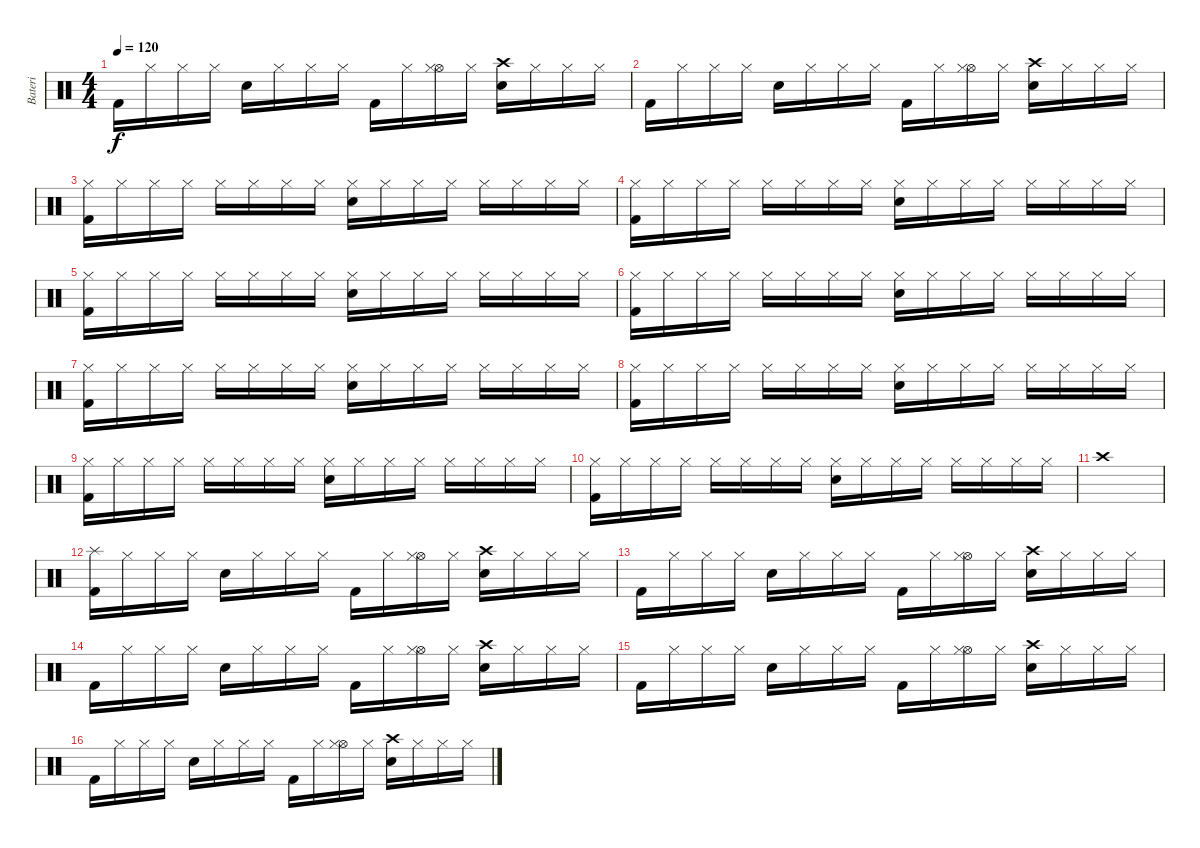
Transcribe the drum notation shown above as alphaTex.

\track ("Bateri" "Bateri") {instrument percussion}
\staff {score}
\articulation defaults
\ts (4 4)
\tempo 120
\clef neutral
\ks c "Kick (hit) 2".16{dy f} "Hi-Hat (closed)".16 "Hi-Hat (closed)".16 "Hi-Hat (closed)".16 "Electric Snare (hit)".16 "Hi-Hat (closed)".16 "Hi-Hat (closed)".16 "Hi-Hat (closed)".16 "Kick (hit) 2".16 "Hi-Hat (closed)".16
("Hi-Hat (open)" "Hi-Hat (closed)").16 "Hi-Hat (closed)".16 ("Crash high (hit)" "Electric Snare (hit)").16 "Hi-Hat (closed)".16 "Hi-Hat (closed)".16 "Hi-Hat (closed)".16 |
"Kick (hit) 2".16 "Hi-Hat (closed)".16 "Hi-Hat (closed)".16 "Hi-Hat (closed)".16 "Electric Snare (hit)".16 "Hi-Hat (closed)".16 "Hi-Hat (closed)".16 "Hi-Hat (closed)".16 "Kick (hit) 2".16 "Hi-Hat (closed)".16 ("Hi-Hat (open)" "Hi-Hat (closed)").16 "Hi-Hat (closed)".16 ("Crash high (hit)" "Electric Snare (hit)").16 "Hi-Hat (closed)".16 "Hi-Hat (closed)".16 "Hi-Hat (closed)".16 |
("Hi-Hat (closed)" "Kick (hit) 2").16 "Hi-Hat (closed)".16 "Hi-Hat (closed)".16 "Hi-Hat (closed)".16 "Hi-Hat (closed)".16 "Hi-Hat (closed)".16 "Hi-Hat (closed)".16 "Hi-Hat (closed)".16 ("Hi-Hat (closed)" "Electric Snare (hit)").16 "Hi-Hat (closed)".16 "Hi-Hat (closed)".16 "Hi-Hat (closed)".16 "Hi-Hat (closed)".16 "Hi-Hat (closed)".16 "Hi-Hat (closed)".16 "Hi-Hat (closed)".16 |
("Hi-Hat (closed)" "Kick (hit) 2").16 "Hi-Hat (closed)".16 "Hi-Hat (closed)".16 "Hi-Hat (closed)".16 "Hi-Hat (closed)".16 "Hi-Hat (closed)".16 "Hi-Hat (closed)".16 "Hi-Hat (closed)".16 ("Hi-Hat (closed)" "Electric Snare (hit)").16 "Hi-Hat (closed)".16 "Hi-Hat (closed)".16 "Hi-Hat (closed)".16 "Hi-Hat (closed)".16 "Hi-Hat (closed)".16 "Hi-Hat (closed)".16 "Hi-Hat (closed)".16 |
("Hi-Hat (closed)" "Kick (hit) 2").16 "Hi-Hat (closed)".16 "Hi-Hat (closed)".16 "Hi-Hat (closed)".16 "Hi-Hat (closed)".16 "Hi-Hat (closed)".16 "Hi-Hat (closed)".16 "Hi-Hat (closed)".16 ("Hi-Hat (closed)" "Electric Snare (hit)").16 "Hi-Hat (closed)".16 "Hi-Hat (closed)".16 "Hi-Hat (closed)".16 "Hi-Hat (closed)".16 "Hi-Hat (closed)".16 "Hi-Hat (closed)".16 "Hi-Hat (closed)".16 |
("Hi-Hat (closed)" "Kick (hit) 2").16 "Hi-Hat (closed)".16 "Hi-Hat (closed)".16 "Hi-Hat (closed)".16 "Hi-Hat (closed)".16 "Hi-Hat (closed)".16 "Hi-Hat (closed)".16 "Hi-Hat (closed)".16 ("Hi-Hat (closed)" "Electric Snare (hit)").16 "Hi-Hat (closed)".16 "Hi-Hat (closed)".16 "Hi-Hat (closed)".16 "Hi-Hat (closed)".16 "Hi-Hat (closed)".16 "Hi-Hat (closed)".16 "Hi-Hat (closed)".16 |
("Hi-Hat (closed)" "Kick (hit) 2").16 "Hi-Hat (closed)".16 "Hi-Hat (closed)".16 "Hi-Hat (closed)".16 "Hi-Hat (closed)".16 "Hi-Hat (closed)".16 "Hi-Hat (closed)".16 "Hi-Hat (closed)".16 ("Hi-Hat (closed)" "Electric Snare (hit)").16 "Hi-Hat (closed)".16 "Hi-Hat (closed)".16 "Hi-Hat (closed)".16 "Hi-Hat (closed)".16 "Hi-Hat (closed)".16 "Hi-Hat (closed)".16 "Hi-Hat (closed)".16 |
("Hi-Hat (closed)" "Kick (hit) 2").16 "Hi-Hat (closed)".16 "Hi-Hat (closed)".16 "Hi-Hat (closed)".16 "Hi-Hat (closed)".16 "Hi-Hat (closed)".16 "Hi-Hat (closed)".16 "Hi-Hat (closed)".16 ("Hi-Hat (closed)" "Electric Snare (hit)").16 "Hi-Hat (closed)".16 "Hi-Hat (closed)".16 "Hi-Hat (closed)".16 "Hi-Hat (closed)".16 "Hi-Hat (closed)".16 "Hi-Hat (closed)".16 "Hi-Hat (closed)".16 |
("Hi-Hat (closed)" "Kick (hit) 2").16 "Hi-Hat (closed)".16 "Hi-Hat (closed)".16 "Hi-Hat (closed)".16 "Hi-Hat (closed)".16 "Hi-Hat (closed)".16 "Hi-Hat (closed)".16 "Hi-Hat (closed)".16 ("Hi-Hat (closed)" "Electric Snare (hit)").16 "Hi-Hat (closed)".16 "Hi-Hat (closed)".16 "Hi-Hat (closed)".16 "Hi-Hat (closed)".16 "Hi-Hat (closed)".16 "Hi-Hat (closed)".16 "Hi-Hat (closed)".16 |
("Hi-Hat (closed)" "Kick (hit) 2").16 "Hi-Hat (closed)".16 "Hi-Hat (closed)".16 "Hi-Hat (closed)".16 "Hi-Hat (closed)".16 "Hi-Hat (closed)".16 "Hi-Hat (closed)".16 "Hi-Hat (closed)".16 ("Hi-Hat (closed)" "Electric Snare (hit)").16 "Hi-Hat (closed)".16 "Hi-Hat (closed)".16 "Hi-Hat (closed)".16 "Hi-Hat (closed)".16 "Hi-Hat (closed)".16 "Hi-Hat (closed)".16 "Hi-Hat (closed)".16 |
"Crash high (hit)".1 |
("Splash (hit)" "Kick (hit) 2").16 "Hi-Hat (closed)".16 "Hi-Hat (closed)".16 "Hi-Hat (closed)".16 "Electric Snare (hit)".16 "Hi-Hat (closed)".16 "Hi-Hat (closed)".16 "Hi-Hat (closed)".16 "Kick (hit) 2".16 "Hi-Hat (closed)".16 ("Hi-Hat (open)" "Hi-Hat (closed)").16 "Hi-Hat (closed)".16 ("Crash high (hit)" "Electric Snare (hit)").16 "Hi-Hat (closed)".16 "Hi-Hat (closed)".16 "Hi-Hat (closed)".16 |
"Kick (hit) 2".16 "Hi-Hat (closed)".16 "Hi-Hat (closed)".16 "Hi-Hat (closed)".16 "Electric Snare (hit)".16 "Hi-Hat (closed)".16 "Hi-Hat (closed)".16 "Hi-Hat (closed)".16 "Kick (hit) 2".16 "Hi-Hat (closed)".16 ("Hi-Hat (open)" "Hi-Hat (closed)").16 "Hi-Hat (closed)".16 ("Crash high (hit)" "Electric Snare (hit)").16 "Hi-Hat (closed)".16 "Hi-Hat (closed)".16 "Hi-Hat (closed)".16 |
"Kick (hit) 2".16 "Hi-Hat (closed)".16 "Hi-Hat (closed)".16 "Hi-Hat (closed)".16 "Electric Snare (hit)".16 "Hi-Hat (closed)".16 "Hi-Hat (closed)".16 "Hi-Hat (closed)".16 "Kick (hit) 2".16 "Hi-Hat (closed)".16 ("Hi-Hat (open)" "Hi-Hat (closed)").16 "Hi-Hat (closed)".16 ("Crash high (hit)" "Electric Snare (hit)").16 "Hi-Hat (closed)".16 "Hi-Hat (closed)".16 "Hi-Hat (closed)".16 |
"Kick (hit) 2".16 "Hi-Hat (closed)".16 "Hi-Hat (closed)".16 "Hi-Hat (closed)".16 "Electric Snare (hit)".16 "Hi-Hat (closed)".16 "Hi-Hat (closed)".16 "Hi-Hat (closed)".16 "Kick (hit) 2".16 "Hi-Hat (closed)".16 ("Hi-Hat (open)" "Hi-Hat (closed)").16 "Hi-Hat (closed)".16 ("Crash high (hit)" "Electric Snare (hit)").16 "Hi-Hat (closed)".16 "Hi-Hat (closed)".16 "Hi-Hat (closed)".16 |
"Kick (hit) 2".16 "Hi-Hat (closed)".16 "Hi-Hat (closed)".16 "Hi-Hat (closed)".16 "Electric Snare (hit)".16 "Hi-Hat (closed)".16 "Hi-Hat (closed)".16 "Hi-Hat (closed)".16 "Kick (hit) 2".16 "Hi-Hat (closed)".16 ("Hi-Hat (open)" "Hi-Hat (closed)").16 "Hi-Hat (closed)".16 ("Crash high (hit)" "Electric Snare (hit)").16 "Hi-Hat (closed)".16 "Hi-Hat (closed)".16 "Hi-Hat (closed)".16
